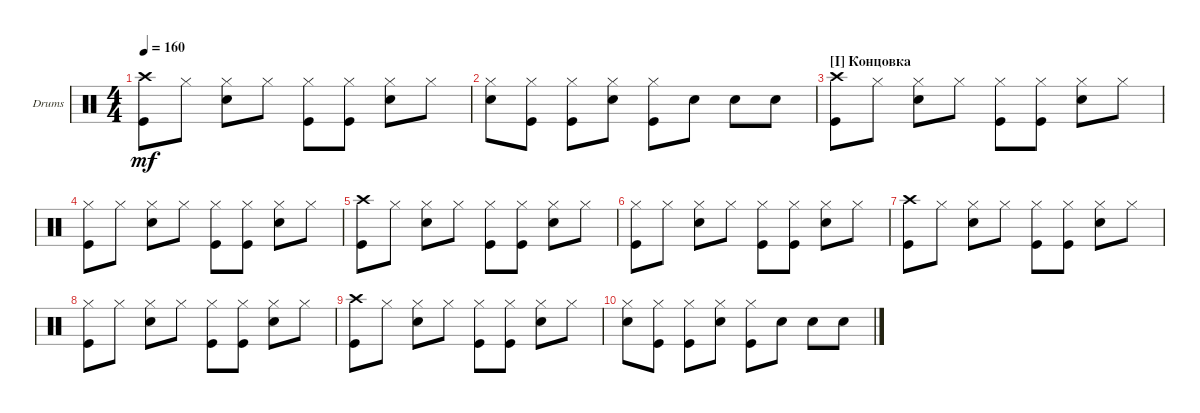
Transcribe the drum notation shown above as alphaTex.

\bracketExtendMode groupsimilarinstruments
\firstSystemTrackNameOrientation horizontal
\otherSystemsTrackNameOrientation horizontal
\track ("Drumkit" "Drums") {instrument percussion}
\staff {score}
\articulation defaults
\ts (4 4)
\tempo 160
\clef neutral
\ks c
("Kick (hit)" "Crash high (hit)").8{dy mf} "Hi-Hat (closed)".8 ("Hi-Hat (closed)" "Snare (hit) 2").8 "Hi-Hat (closed)".8 ("Kick (hit)" "Hi-Hat (closed)").8 ("Hi-Hat (closed)" "Kick (hit)").8 ("Hi-Hat (closed)" "Snare (hit) 2").8 "Hi-Hat (closed)".8 |
("Hi-Hat (closed)" "Snare (hit) 2").8 ("Hi-Hat (closed)" "Kick (hit)").8 ("Hi-Hat (closed)" "Kick (hit)").8 ("Hi-Hat (closed)" "Snare (hit) 2").8 ("Kick (hit)" "Hi-Hat (closed)").8 "Snare (hit) 2".8 "Snare (hit) 2".8 "Snare (hit) 2".8 |
\section ("I" "Концовка")
("Kick (hit)" "Crash high (hit)").8 "Hi-Hat (closed)".8 ("Hi-Hat (closed)" "Snare (hit) 2").8 "Hi-Hat (closed)".8 ("Kick (hit)" "Hi-Hat (closed)").8 ("Hi-Hat (closed)" "Kick (hit)").8 ("Hi-Hat (closed)" "Snare (hit) 2").8 "Hi-Hat (closed)".8 |
("Kick (hit)" "Hi-Hat (closed)").8 "Hi-Hat (closed)".8 ("Hi-Hat (closed)" "Snare (hit) 2").8 "Hi-Hat (closed)".8 ("Kick (hit)" "Hi-Hat (closed)").8 ("Hi-Hat (closed)" "Kick (hit)").8 ("Hi-Hat (closed)" "Snare (hit) 2").8 "Hi-Hat (closed)".8 |
("Kick (hit)" "Crash high (hit)").8 "Hi-Hat (closed)".8 ("Hi-Hat (closed)" "Snare (hit) 2").8 "Hi-Hat (closed)".8 ("Kick (hit)" "Hi-Hat (closed)").8 ("Hi-Hat (closed)" "Kick (hit)").8 ("Hi-Hat (closed)" "Snare (hit) 2").8 "Hi-Hat (closed)".8 |
("Kick (hit)" "Hi-Hat (closed)").8 "Hi-Hat (closed)".8 ("Hi-Hat (closed)" "Snare (hit) 2").8 "Hi-Hat (closed)".8 ("Kick (hit)" "Hi-Hat (closed)").8 ("Hi-Hat (closed)" "Kick (hit)").8 ("Hi-Hat (closed)" "Snare (hit) 2").8 "Hi-Hat (closed)".8 |
("Kick (hit)" "Crash high (hit)").8 "Hi-Hat (closed)".8 ("Hi-Hat (closed)" "Snare (hit) 2").8 "Hi-Hat (closed)".8 ("Kick (hit)" "Hi-Hat (closed)").8 ("Hi-Hat (closed)" "Kick (hit)").8 ("Hi-Hat (closed)" "Snare (hit) 2").8 "Hi-Hat (closed)".8 |
("Kick (hit)" "Hi-Hat (closed)").8 "Hi-Hat (closed)".8 ("Hi-Hat (closed)" "Snare (hit) 2").8 "Hi-Hat (closed)".8 ("Kick (hit)" "Hi-Hat (closed)").8 ("Hi-Hat (closed)" "Kick (hit)").8 ("Hi-Hat (closed)" "Snare (hit) 2").8 "Hi-Hat (closed)".8 |
("Kick (hit)" "Crash high (hit)").8 "Hi-Hat (closed)".8 ("Hi-Hat (closed)" "Snare (hit) 2").8 "Hi-Hat (closed)".8 ("Kick (hit)" "Hi-Hat (closed)").8 ("Hi-Hat (closed)" "Kick (hit)").8 ("Hi-Hat (closed)" "Snare (hit) 2").8 "Hi-Hat (closed)".8 |
("Hi-Hat (closed)" "Snare (hit) 2").8 ("Hi-Hat (closed)" "Kick (hit)").8 ("Hi-Hat (closed)" "Kick (hit)").8 ("Hi-Hat (closed)" "Snare (hit) 2").8 ("Kick (hit)" "Hi-Hat (closed)").8 "Snare (hit) 2".8 "Snare (hit) 2".8 "Snare (hit) 2".8
